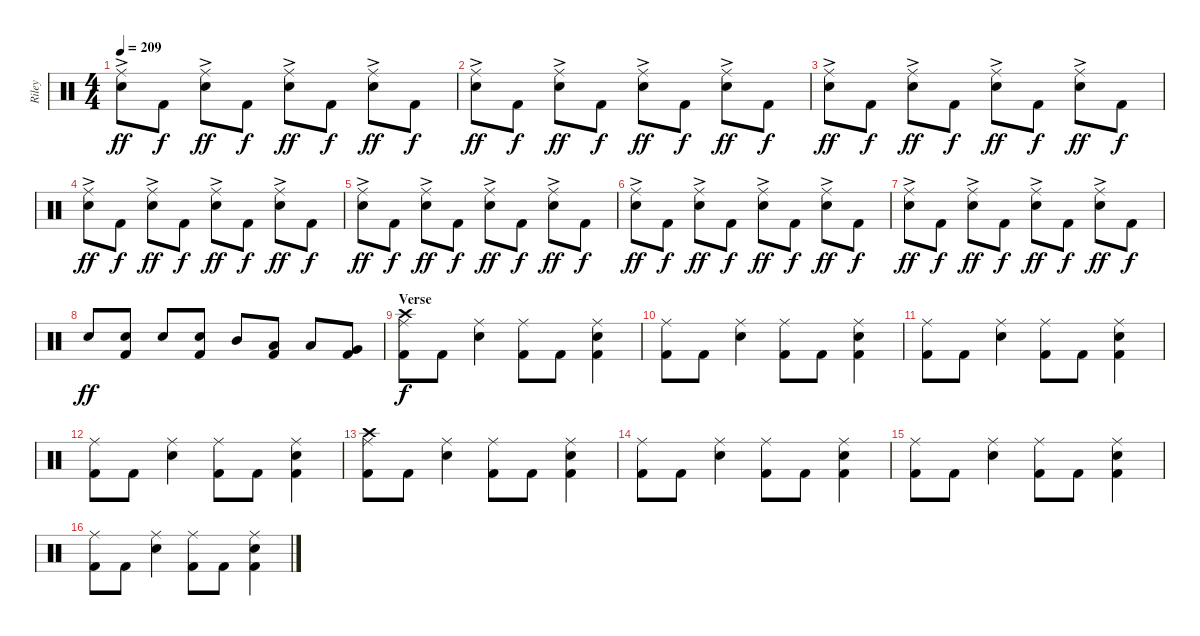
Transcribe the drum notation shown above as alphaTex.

\track ("Riley" "Riley") {instrument percussion}
\staff {score}
\articulation defaults
\ts (4 4)
\tempo 209
\clef neutral
\ks c
("Ride (middle)" "Electric Snare (hit)"{ac}).8{dy ff} "Kick (hit) 2".8{dy f} ("Ride (middle)" "Electric Snare (hit)"{ac}).8{dy ff} "Kick (hit) 2".8{dy f} ("Ride (middle)" "Electric Snare (hit)"{ac}).8{dy ff} "Kick (hit) 2".8{dy f} ("Ride (middle)" "Electric Snare (hit)"{ac}).8{dy ff} "Kick (hit) 2".8{dy f} |
("Ride (middle)" "Electric Snare (hit)"{ac}).8{dy ff} "Kick (hit) 2".8{dy f} ("Ride (middle)" "Electric Snare (hit)"{ac}).8{dy ff} "Kick (hit) 2".8{dy f} ("Ride (middle)" "Electric Snare (hit)"{ac}).8{dy ff} "Kick (hit) 2".8{dy f} ("Ride (middle)" "Electric Snare (hit)"{ac}).8{dy ff} "Kick (hit) 2".8{dy f} |
("Ride (middle)" "Electric Snare (hit)"{ac}).8{dy ff} "Kick (hit) 2".8{dy f} ("Ride (middle)" "Electric Snare (hit)"{ac}).8{dy ff} "Kick (hit) 2".8{dy f} ("Ride (middle)" "Electric Snare (hit)"{ac}).8{dy ff} "Kick (hit) 2".8{dy f} ("Ride (middle)" "Electric Snare (hit)"{ac}).8{dy ff} "Kick (hit) 2".8{dy f} |
("Ride (middle)" "Electric Snare (hit)"{ac}).8{dy ff} "Kick (hit) 2".8{dy f} ("Ride (middle)" "Electric Snare (hit)"{ac}).8{dy ff} "Kick (hit) 2".8{dy f} ("Ride (middle)" "Electric Snare (hit)"{ac}).8{dy ff} "Kick (hit) 2".8{dy f} ("Ride (middle)" "Electric Snare (hit)"{ac}).8{dy ff} "Kick (hit) 2".8{dy f} |
("Ride (middle)" "Electric Snare (hit)"{ac}).8{dy ff} "Kick (hit) 2".8{dy f} ("Ride (middle)" "Electric Snare (hit)"{ac}).8{dy ff} "Kick (hit) 2".8{dy f} ("Ride (middle)" "Electric Snare (hit)"{ac}).8{dy ff} "Kick (hit) 2".8{dy f} ("Ride (middle)" "Electric Snare (hit)"{ac}).8{dy ff} "Kick (hit) 2".8{dy f} |
("Ride (middle)" "Electric Snare (hit)"{ac}).8{dy ff} "Kick (hit) 2".8{dy f} ("Ride (middle)" "Electric Snare (hit)"{ac}).8{dy ff} "Kick (hit) 2".8{dy f} ("Ride (middle)" "Electric Snare (hit)"{ac}).8{dy ff} "Kick (hit) 2".8{dy f} ("Ride (middle)" "Electric Snare (hit)"{ac}).8{dy ff} "Kick (hit) 2".8{dy f} |
("Ride (middle)" "Electric Snare (hit)"{ac}).8{dy ff} "Kick (hit) 2".8{dy f} ("Ride (middle)" "Electric Snare (hit)"{ac}).8{dy ff} "Kick (hit) 2".8{dy f} ("Ride (middle)" "Electric Snare (hit)"{ac}).8{dy ff} "Kick (hit) 2".8{dy f} ("Ride (middle)" "Electric Snare (hit)"{ac}).8{dy ff} "Kick (hit) 2".8{dy f} |
"Electric Snare (hit)".8{dy ff} ("Electric Snare (hit)" "Kick (hit) 2").8 "Electric Snare (hit)".8 ("Electric Snare (hit)" "Kick (hit) 2").8 "Mid Tom (hit)".8 ("Low Tom (hit)" "Kick (hit) 2").8 "Low Tom (hit)".8 ("Very Low Tom (hit)" "Kick (hit) 2").8 |
\section ("" "Verse")
("Crash high (hit)" "Ride (middle)" "Kick (hit) 2").8{dy f} "Kick (hit) 2".8 ("Ride (middle)" "Electric Snare (hit)").4 ("Ride (middle)" "Kick (hit) 2").8 "Kick (hit) 2".8 ("Ride (middle)" "Electric Snare (hit)" "Kick (hit) 2").4 |
("Ride (middle)" "Kick (hit) 2").8 "Kick (hit) 2".8 ("Ride (middle)" "Electric Snare (hit)").4 ("Ride (middle)" "Kick (hit) 2").8 "Kick (hit) 2".8 ("Ride (middle)" "Electric Snare (hit)" "Kick (hit) 2").4 |
("Ride (middle)" "Kick (hit) 2").8 "Kick (hit) 2".8 ("Ride (middle)" "Electric Snare (hit)").4 ("Ride (middle)" "Kick (hit) 2").8 "Kick (hit) 2".8 ("Ride (middle)" "Electric Snare (hit)" "Kick (hit) 2").4 |
("Ride (middle)" "Kick (hit) 2").8 "Kick (hit) 2".8 ("Ride (middle)" "Electric Snare (hit)").4 ("Ride (middle)" "Kick (hit) 2").8 "Kick (hit) 2".8 ("Ride (middle)" "Electric Snare (hit)" "Kick (hit) 2").4 |
("Crash high (hit)" "Ride (middle)" "Kick (hit) 2").8 "Kick (hit) 2".8 ("Ride (middle)" "Electric Snare (hit)").4 ("Ride (middle)" "Kick (hit) 2").8 "Kick (hit) 2".8 ("Ride (middle)" "Electric Snare (hit)" "Kick (hit) 2").4 |
("Ride (middle)" "Kick (hit) 2").8 "Kick (hit) 2".8 ("Ride (middle)" "Electric Snare (hit)").4 ("Ride (middle)" "Kick (hit) 2").8 "Kick (hit) 2".8 ("Ride (middle)" "Electric Snare (hit)" "Kick (hit) 2").4 |
("Ride (middle)" "Kick (hit) 2").8 "Kick (hit) 2".8 ("Ride (middle)" "Electric Snare (hit)").4 ("Ride (middle)" "Kick (hit) 2").8 "Kick (hit) 2".8 ("Ride (middle)" "Electric Snare (hit)" "Kick (hit) 2").4 |
("Ride (middle)" "Kick (hit) 2").8 "Kick (hit) 2".8 ("Ride (middle)" "Electric Snare (hit)").4 ("Ride (middle)" "Kick (hit) 2").8 "Kick (hit) 2".8 ("Ride (middle)" "Electric Snare (hit)" "Kick (hit) 2").4
